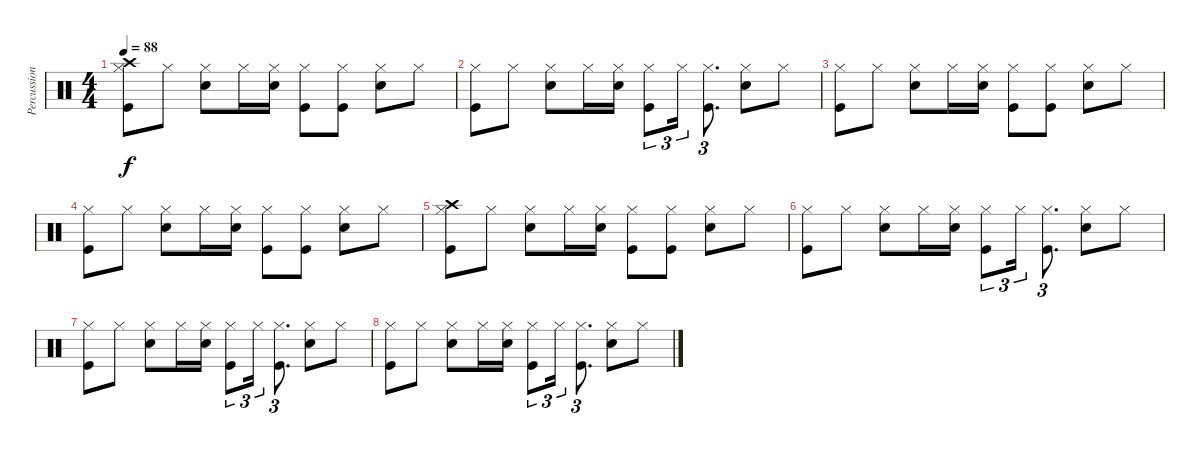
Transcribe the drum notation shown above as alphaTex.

\track ("Percussions" "Percussion") {instrument percussion}
\staff {score}
\articulation defaults
\ts (4 4)
\tempo 88
\clef neutral
\ks c
("Crash high (hit)" "Hi-Hat (closed)" "Kick (hit)").8{dy f volume 9} "Hi-Hat (closed)".8 ("Electric Snare (hit)" "Hi-Hat (closed)").8 "Hi-Hat (closed)".16 ("Electric Snare (hit)" "Hi-Hat (closed)").16 ("Hi-Hat (closed)" "Kick (hit)").8 ("Hi-Hat (closed)" "Kick (hit)").8 ("Electric Snare (hit)" "Hi-Hat (closed)").8 "Hi-Hat (closed)".8 |
("Hi-Hat (closed)" "Kick (hit)").8 "Hi-Hat (closed)".8 ("Electric Snare (hit)" "Hi-Hat (closed)").8 "Hi-Hat (closed)".16 ("Electric Snare (hit)" "Hi-Hat (closed)").16 ("Hi-Hat (closed)" "Kick (hit)").8{tu (3 2)} "Hi-Hat (closed)".16{tu (3 2)} ("Hi-Hat (closed)" "Kick (hit)").8{d tu (3 2)} ("Electric Snare (hit)" "Hi-Hat (closed)").8 "Hi-Hat (closed)".8 |
("Hi-Hat (closed)" "Kick (hit)").8 "Hi-Hat (closed)".8 ("Electric Snare (hit)" "Hi-Hat (closed)").8 "Hi-Hat (closed)".16 ("Electric Snare (hit)" "Hi-Hat (closed)").16 ("Hi-Hat (closed)" "Kick (hit)").8 ("Hi-Hat (closed)" "Kick (hit)").8 ("Electric Snare (hit)" "Hi-Hat (closed)").8 "Hi-Hat (closed)".8 |
("Hi-Hat (closed)" "Kick (hit)").8 "Hi-Hat (closed)".8 ("Electric Snare (hit)" "Hi-Hat (closed)").8 "Hi-Hat (closed)".16 ("Electric Snare (hit)" "Hi-Hat (closed)").16 ("Hi-Hat (closed)" "Kick (hit)").8 ("Hi-Hat (closed)" "Kick (hit)").8 ("Electric Snare (hit)" "Hi-Hat (closed)").8 "Hi-Hat (closed)".8 |
("Crash high (hit)" "Hi-Hat (closed)" "Kick (hit)").8 "Hi-Hat (closed)".8 ("Electric Snare (hit)" "Hi-Hat (closed)").8 "Hi-Hat (closed)".16 ("Electric Snare (hit)" "Hi-Hat (closed)").16 ("Hi-Hat (closed)" "Kick (hit)").8 ("Hi-Hat (closed)" "Kick (hit)").8 ("Electric Snare (hit)" "Hi-Hat (closed)").8 "Hi-Hat (closed)".8 |
("Hi-Hat (closed)" "Kick (hit)").8 "Hi-Hat (closed)".8 ("Electric Snare (hit)" "Hi-Hat (closed)").8 "Hi-Hat (closed)".16 ("Electric Snare (hit)" "Hi-Hat (closed)").16 ("Hi-Hat (closed)" "Kick (hit)").8{tu (3 2)} "Hi-Hat (closed)".16{tu (3 2)} ("Hi-Hat (closed)" "Kick (hit)").8{d tu (3 2)} ("Electric Snare (hit)" "Hi-Hat (closed)").8 "Hi-Hat (closed)".8 |
("Hi-Hat (closed)" "Kick (hit)").8 "Hi-Hat (closed)".8 ("Electric Snare (hit)" "Hi-Hat (closed)").8 "Hi-Hat (closed)".16 ("Electric Snare (hit)" "Hi-Hat (closed)").16 ("Hi-Hat (closed)" "Kick (hit)").8{tu (3 2)} "Hi-Hat (closed)".16{tu (3 2)} ("Hi-Hat (closed)" "Kick (hit)").8{d tu (3 2)} ("Electric Snare (hit)" "Hi-Hat (closed)").8 "Hi-Hat (closed)".8 |
("Hi-Hat (closed)" "Kick (hit)").8 "Hi-Hat (closed)".8 ("Electric Snare (hit)" "Hi-Hat (closed)").8 "Hi-Hat (closed)".16 ("Electric Snare (hit)" "Hi-Hat (closed)").16 ("Hi-Hat (closed)" "Kick (hit)").8{tu (3 2)} "Hi-Hat (closed)".16{tu (3 2)} ("Hi-Hat (closed)" "Kick (hit)").8{d tu (3 2)} ("Electric Snare (hit)" "Hi-Hat (closed)").8 "Hi-Hat (closed)".8
